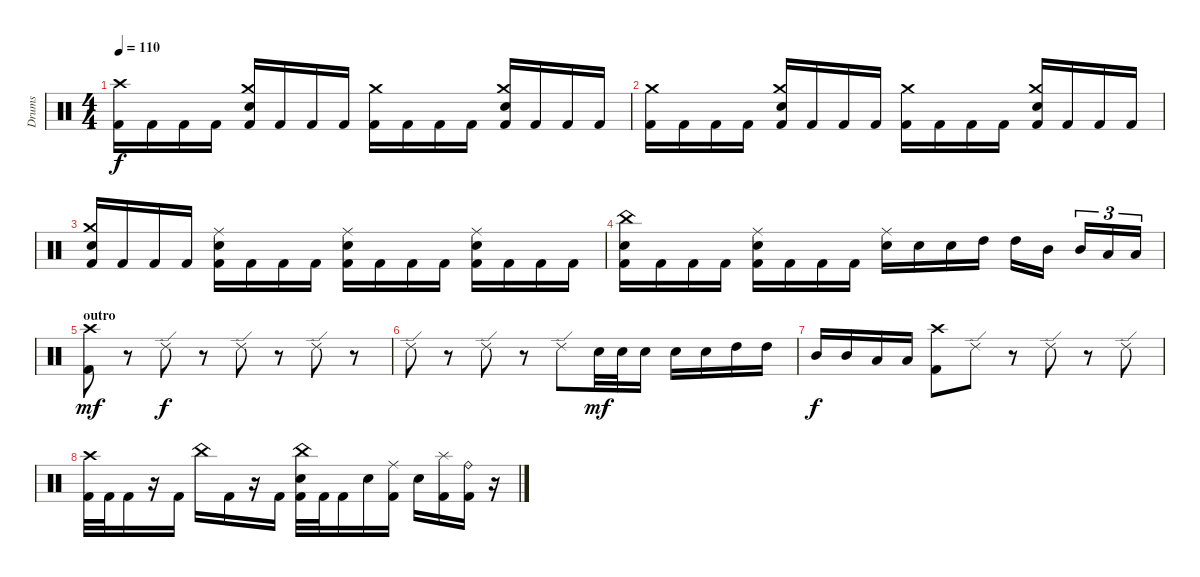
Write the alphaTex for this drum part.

\track ("Drums" "Drums") {instrument percussion}
\staff {score}
\articulation defaults
\ts (4 4)
\tempo 110
\clef neutral
\ks c
("Crash high (hit)" "Kick (hit) 2").16{dy f} "Kick (hit) 2".16 "Kick (hit) 2".16 "Kick (hit) 2".16 ("Crash medium (hit)" "Electric Snare (hit)" "Kick (hit) 2").16 "Kick (hit) 2".16 "Kick (hit) 2".16 "Kick (hit) 2".16 ("Crash medium (hit)" "Kick (hit) 2").16 "Kick (hit) 2".16 "Kick (hit) 2".16 "Kick (hit) 2".16 ("Crash medium (hit)" "Electric Snare (hit)" "Kick (hit) 2").16 "Kick (hit) 2".16 "Kick (hit) 2".16 "Kick (hit) 2".16 |
("Crash medium (hit)" "Kick (hit) 2").16 "Kick (hit) 2".16 "Kick (hit) 2".16 "Kick (hit) 2".16 ("Crash medium (hit)" "Electric Snare (hit)" "Kick (hit) 2").16 "Kick (hit) 2".16 "Kick (hit) 2".16 "Kick (hit) 2".16 ("Crash medium (hit)" "Kick (hit) 2").16 "Kick (hit) 2".16 "Kick (hit) 2".16 "Kick (hit) 2".16 ("Crash medium (hit)" "Electric Snare (hit)" "Kick (hit) 2").16 "Kick (hit) 2".16 "Kick (hit) 2".16 "Kick (hit) 2".16 |
("Crash medium (hit)" "Electric Snare (hit)" "Kick (hit) 2").16 "Kick (hit) 2".16 "Kick (hit) 2".16 "Kick (hit) 2".16 ("Ride (middle)" "Electric Snare (hit)" "Kick (hit) 2").16 "Kick (hit) 2".16 "Kick (hit) 2".16 "Kick (hit) 2".16 ("Ride (middle)" "Electric Snare (hit)" "Kick (hit) 2").16 "Kick (hit) 2".16 "Kick (hit) 2".16 "Kick (hit) 2".16 ("Ride (middle)" "Electric Snare (hit)" "Kick (hit) 2").16 "Kick (hit) 2".16 "Kick (hit) 2".16 "Kick (hit) 2".16 |
("China (hit)" "Electric Snare (hit)" "Kick (hit) 2").16 "Kick (hit) 2".16 "Kick (hit) 2".16 "Kick (hit) 2".16 ("Ride (middle)" "Electric Snare (hit)" "Kick (hit) 2").16 "Kick (hit) 2".16 "Kick (hit) 2".16 "Kick (hit) 2".16 ("Ride (middle)" "Electric Snare (hit)").16 "Electric Snare (hit)".16 "Electric Snare (hit)".16 "High Tom (hit)".16 "High Tom (hit)".16 "Mid Tom (hit)".16{beam splitsecondary} "Mid Tom (hit)".16{tu (3 2)} "Low Tom (hit)".16{tu (3 2)} "Low Tom (hit)".16{tu (3 2)} |
\section ("" "outro")
("Crash high (hit)" "Kick (hit) 2").8{dy mf} r.8 "Ride (edge) 2".8{dy f} r.8 "Ride (edge) 2".8 r.8 "Ride (edge) 2".8 r.8 |
"Ride (edge) 2".8 r.8 "Ride (edge) 2".8 r.8 "Ride (edge) 2".8 "Electric Snare (hit)".32{dy mf} "Electric Snare (hit)".32 "Electric Snare (hit)".16 "Electric Snare (hit)".16 "Electric Snare (hit)".16 "High Tom (hit)".16 "High Tom (hit)".16 |
"Mid Tom (hit)".16{dy f} "Mid Tom (hit)".16 "Low Tom (hit)".16 "Low Tom (hit)".16 ("Crash high (hit)" "Kick (hit) 2").8 "Ride (edge) 2".8 r.8 "Ride (edge) 2".8 r.8 "Ride (edge) 2".8 |
("Crash high (hit)" "Kick (hit) 2").32 "Kick (hit) 2".32 "Kick (hit) 2".16 r.16 "Kick (hit) 2".16 "China (hit)".16 "Kick (hit) 2".16 r.16 "Kick (hit) 2".16 ("China (hit)" "Electric Snare (hit)" "Kick (hit) 2").32 "Kick (hit) 2".32 "Kick (hit) 2".16 "Electric Snare (hit)".16 ("Ride (middle)" "Kick (hit) 2").16 "Electric Snare (hit)".16 ("Splash (hit)" "Kick (hit) 2").16 ("Ride (bell)" "Kick (hit) 2").16 r.16
